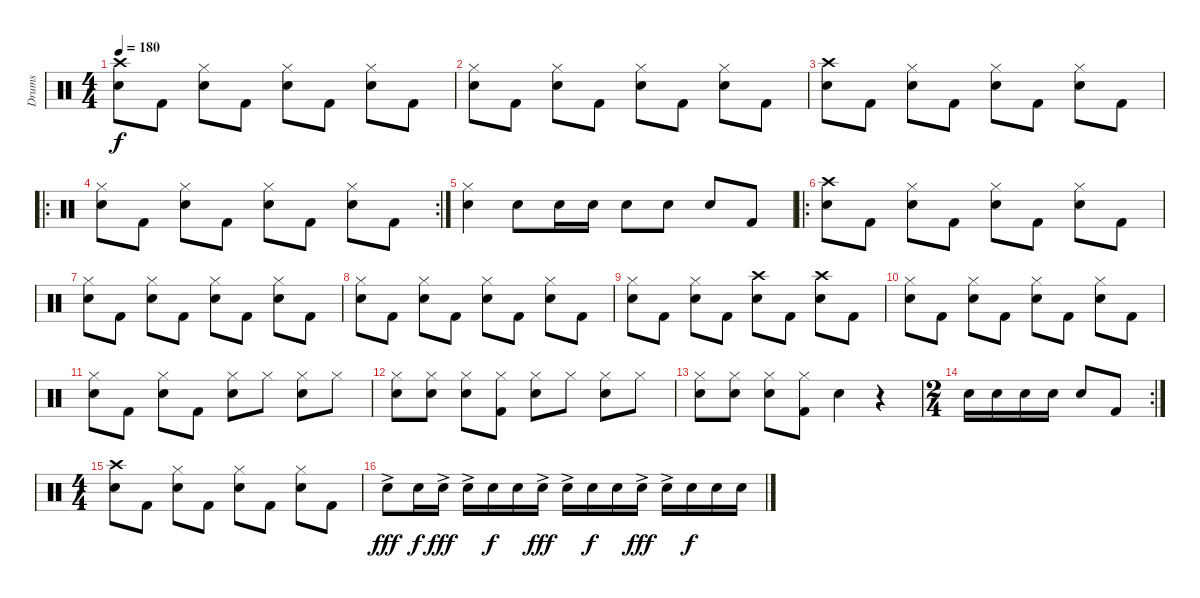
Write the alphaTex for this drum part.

\track ("Drums" "Drums") {instrument percussion}
\staff {score}
\articulation defaults
\ts (4 4)
\tempo 180
\clef neutral
\ks c
("Crash high (hit)" "Electric Snare (hit)").8{dy f} "Kick (hit) 2".8 ("Hi-Hat (closed)" "Electric Snare (hit)").8 "Kick (hit) 2".8 ("Hi-Hat (closed)" "Electric Snare (hit)").8 "Kick (hit) 2".8 ("Hi-Hat (closed)" "Electric Snare (hit)").8 "Kick (hit) 2".8 |
("Hi-Hat (closed)" "Electric Snare (hit)").8 "Kick (hit) 2".8 ("Hi-Hat (closed)" "Electric Snare (hit)").8 "Kick (hit) 2".8 ("Hi-Hat (closed)" "Electric Snare (hit)").8 "Kick (hit) 2".8 ("Hi-Hat (closed)" "Electric Snare (hit)").8 "Kick (hit) 2".8 |
("Crash high (hit)" "Electric Snare (hit)").8 "Kick (hit) 2".8 ("Hi-Hat (closed)" "Electric Snare (hit)").8 "Kick (hit) 2".8 ("Hi-Hat (closed)" "Electric Snare (hit)").8 "Kick (hit) 2".8 ("Hi-Hat (closed)" "Electric Snare (hit)").8 "Kick (hit) 2".8 |
\ro
\rc 2
("Hi-Hat (closed)" "Electric Snare (hit)").8 "Kick (hit) 2".8 ("Hi-Hat (closed)" "Electric Snare (hit)").8 "Kick (hit) 2".8 ("Hi-Hat (closed)" "Electric Snare (hit)").8 "Kick (hit) 2".8 ("Hi-Hat (closed)" "Electric Snare (hit)").8 "Kick (hit) 2".8 |
("Hi-Hat (closed)" "Electric Snare (hit)").4 "Electric Snare (hit)".8 "Electric Snare (hit)".16 "Electric Snare (hit)".16 "Electric Snare (hit)".8 "Electric Snare (hit)".8 "Electric Snare (hit)".8 "Kick (hit) 2".8 |
\ro
("Crash high (hit)" "Electric Snare (hit)").8 "Kick (hit) 2".8 ("Hi-Hat (closed)" "Electric Snare (hit)").8 "Kick (hit) 2".8 ("Hi-Hat (closed)" "Electric Snare (hit)").8 "Kick (hit) 2".8 ("Hi-Hat (closed)" "Electric Snare (hit)").8 "Kick (hit) 2".8 |
("Hi-Hat (closed)" "Electric Snare (hit)").8 "Kick (hit) 2".8 ("Hi-Hat (closed)" "Electric Snare (hit)").8 "Kick (hit) 2".8 ("Hi-Hat (closed)" "Electric Snare (hit)").8 "Kick (hit) 2".8 ("Hi-Hat (closed)" "Electric Snare (hit)").8 "Kick (hit) 2".8 |
("Hi-Hat (closed)" "Electric Snare (hit)").8 "Kick (hit) 2".8 ("Hi-Hat (closed)" "Electric Snare (hit)").8 "Kick (hit) 2".8 ("Hi-Hat (closed)" "Electric Snare (hit)").8 "Kick (hit) 2".8 ("Hi-Hat (closed)" "Electric Snare (hit)").8 "Kick (hit) 2".8 |
("Hi-Hat (closed)" "Electric Snare (hit)").8 "Kick (hit) 2".8 ("Hi-Hat (closed)" "Electric Snare (hit)").8 "Kick (hit) 2".8 ("Crash high (hit)" "Electric Snare (hit)").8 "Kick (hit) 2".8 ("Crash high (hit)" "Electric Snare (hit)").8 "Kick (hit) 2".8 |
("Hi-Hat (closed)" "Electric Snare (hit)").8 "Kick (hit) 2".8 ("Hi-Hat (closed)" "Electric Snare (hit)").8 "Kick (hit) 2".8 ("Hi-Hat (closed)" "Electric Snare (hit)").8 "Kick (hit) 2".8 ("Hi-Hat (closed)" "Electric Snare (hit)").8 "Kick (hit) 2".8 |
("Hi-Hat (closed)" "Electric Snare (hit)").8 "Kick (hit) 2".8 ("Hi-Hat (closed)" "Electric Snare (hit)").8 "Kick (hit) 2".8 ("Hi-Hat (closed)" "Electric Snare (hit)").8 "Hi-Hat (closed)".8 ("Hi-Hat (closed)" "Electric Snare (hit)").8 "Hi-Hat (closed)".8 |
("Hi-Hat (closed)" "Electric Snare (hit)").8 ("Hi-Hat (closed)" "Electric Snare (hit)").8 ("Hi-Hat (closed)" "Electric Snare (hit)").8 ("Hi-Hat (closed)" "Kick (hit) 2").8 ("Hi-Hat (closed)" "Electric Snare (hit)").8 "Hi-Hat (closed)".8 ("Hi-Hat (closed)" "Electric Snare (hit)").8 "Hi-Hat (closed)".8 |
("Hi-Hat (closed)" "Electric Snare (hit)").8 ("Hi-Hat (closed)" "Electric Snare (hit)").8 ("Hi-Hat (closed)" "Electric Snare (hit)").8 ("Hi-Hat (closed)" "Kick (hit) 2").8 "Electric Snare (hit)".4 r.4 |
\rc 2
\ts (2 4)
"Electric Snare (hit)".16 "Electric Snare (hit)".16 "Electric Snare (hit)".16 "Electric Snare (hit)".16 "Electric Snare (hit)".8 "Kick (hit) 2".8 |
\ts (4 4)
("Crash high (hit)" "Electric Snare (hit)").8 "Kick (hit) 2".8 ("Hi-Hat (closed)" "Electric Snare (hit)").8 "Kick (hit) 2".8 ("Hi-Hat (closed)" "Electric Snare (hit)").8 "Kick (hit) 2".8 ("Hi-Hat (closed)" "Electric Snare (hit)").8 "Kick (hit) 2".8 |
"Electric Snare (hit)"{ac}.8{dy fff} "Electric Snare (hit)".16{dy f} "Electric Snare (hit)"{ac}.16{dy fff} "Electric Snare (hit)"{ac}.16 "Electric Snare (hit)".16{dy f} "Electric Snare (hit)".16 "Electric Snare (hit)"{ac}.16{dy fff} "Electric Snare (hit)"{ac}.16 "Electric Snare (hit)".16{dy f} "Electric Snare (hit)".16 "Electric Snare (hit)"{ac}.16{dy fff} "Electric Snare (hit)"{ac}.16 "Electric Snare (hit)".16{dy f} "Electric Snare (hit)".16 "Electric Snare (hit)".16
